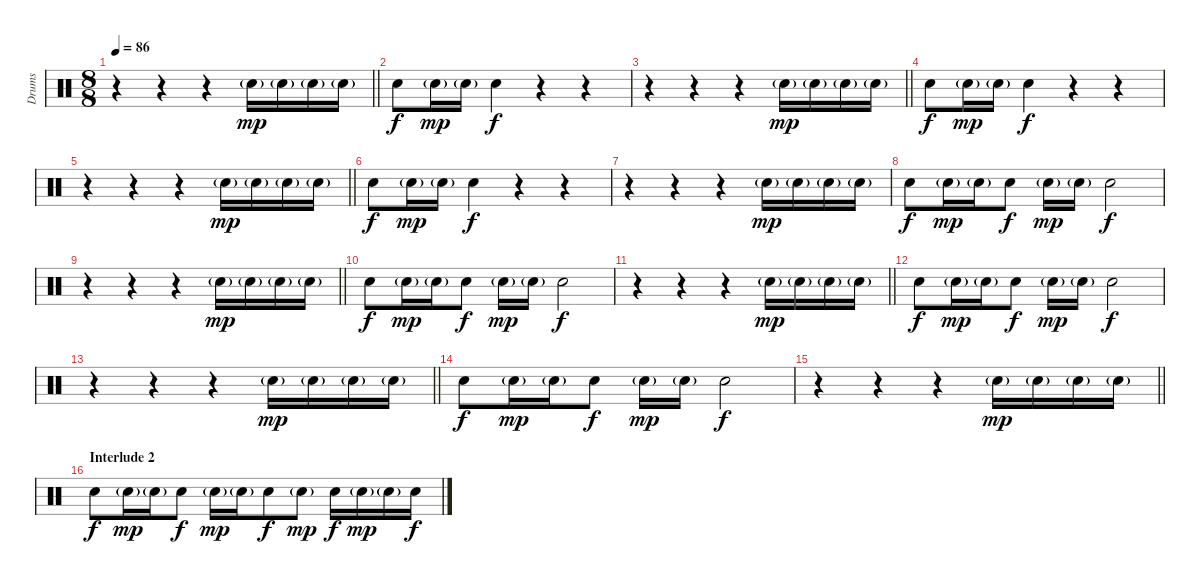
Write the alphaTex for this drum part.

\track ("Drums" "Drums") {instrument percussion}
\staff {score}
\articulation defaults
\ts (8 8)
\tempo 86
\clef neutral
\barLineRight lightlight
\ks c
r.4{dy f} r.4 r.4 "Snare (hit) 2"{g}.16{dy mp} "Snare (hit) 2"{g}.16 "Snare (hit) 2"{g}.16 "Snare (hit) 2"{g}.16 |
"Snare (hit) 2".8{dy f} "Snare (hit) 2"{g}.16{dy mp} "Snare (hit) 2"{g}.16 "Snare (hit) 2".4{dy f} r.4 r.4 |
\barLineRight lightlight
r.4 r.4 r.4 "Snare (hit) 2"{g}.16{dy mp} "Snare (hit) 2"{g}.16 "Snare (hit) 2"{g}.16 "Snare (hit) 2"{g}.16 |
"Snare (hit) 2".8{dy f} "Snare (hit) 2"{g}.16{dy mp} "Snare (hit) 2"{g}.16 "Snare (hit) 2".4{dy f} r.4 r.4 |
\barLineRight lightlight
r.4 r.4 r.4 "Snare (hit) 2"{g}.16{dy mp} "Snare (hit) 2"{g}.16 "Snare (hit) 2"{g}.16 "Snare (hit) 2"{g}.16 |
"Snare (hit) 2".8{dy f} "Snare (hit) 2"{g}.16{dy mp} "Snare (hit) 2"{g}.16 "Snare (hit) 2".4{dy f} r.4 r.4 |
r.4 r.4 r.4 "Snare (hit) 2"{g}.16{dy mp} "Snare (hit) 2"{g}.16 "Snare (hit) 2"{g}.16 "Snare (hit) 2"{g}.16 |
"Snare (hit) 2".8{dy f} "Snare (hit) 2"{g}.16{dy mp} "Snare (hit) 2"{g}.16 "Snare (hit) 2".8{dy f} "Snare (hit) 2"{g}.16{dy mp} "Snare (hit) 2"{g}.16 "Snare (hit) 2".2{dy f} |
\barLineRight lightlight
r.4 r.4 r.4 "Snare (hit) 2"{g}.16{dy mp} "Snare (hit) 2"{g}.16 "Snare (hit) 2"{g}.16 "Snare (hit) 2"{g}.16 |
"Snare (hit) 2".8{dy f} "Snare (hit) 2"{g}.16{dy mp} "Snare (hit) 2"{g}.16 "Snare (hit) 2".8{dy f} "Snare (hit) 2"{g}.16{dy mp} "Snare (hit) 2"{g}.16 "Snare (hit) 2".2{dy f} |
\barLineRight lightlight
r.4 r.4 r.4 "Snare (hit) 2"{g}.16{dy mp} "Snare (hit) 2"{g}.16 "Snare (hit) 2"{g}.16 "Snare (hit) 2"{g}.16 |
"Snare (hit) 2".8{dy f} "Snare (hit) 2"{g}.16{dy mp} "Snare (hit) 2"{g}.16 "Snare (hit) 2".8{dy f} "Snare (hit) 2"{g}.16{dy mp} "Snare (hit) 2"{g}.16 "Snare (hit) 2".2{dy f} |
\barLineRight lightlight
r.4 r.4 r.4 "Snare (hit) 2"{g}.16{dy mp} "Snare (hit) 2"{g}.16 "Snare (hit) 2"{g}.16 "Snare (hit) 2"{g}.16 |
"Snare (hit) 2".8{dy f} "Snare (hit) 2"{g}.16{dy mp} "Snare (hit) 2"{g}.16 "Snare (hit) 2".8{dy f} "Snare (hit) 2"{g}.16{dy mp} "Snare (hit) 2"{g}.16 "Snare (hit) 2".2{dy f} |
\barLineRight lightlight
r.4 r.4 r.4 "Snare (hit) 2"{g}.16{dy mp} "Snare (hit) 2"{g}.16 "Snare (hit) 2"{g}.16 "Snare (hit) 2"{g}.16 |
\section ("" "Interlude 2")
"Snare (hit) 2".8{dy f} "Snare (hit) 2"{g}.16{dy mp} "Snare (hit) 2"{g}.16 "Snare (hit) 2".8{dy f} "Snare (hit) 2"{g}.16{dy mp} "Snare (hit) 2"{g}.16 "Snare (hit) 2".8{dy f} "Snare (hit) 2"{g}.8{dy mp} "Snare (hit) 2".16{dy f} "Snare (hit) 2"{g}.16{dy mp} "Snare (hit) 2"{g}.16 "Snare (hit) 2".16{dy f}
